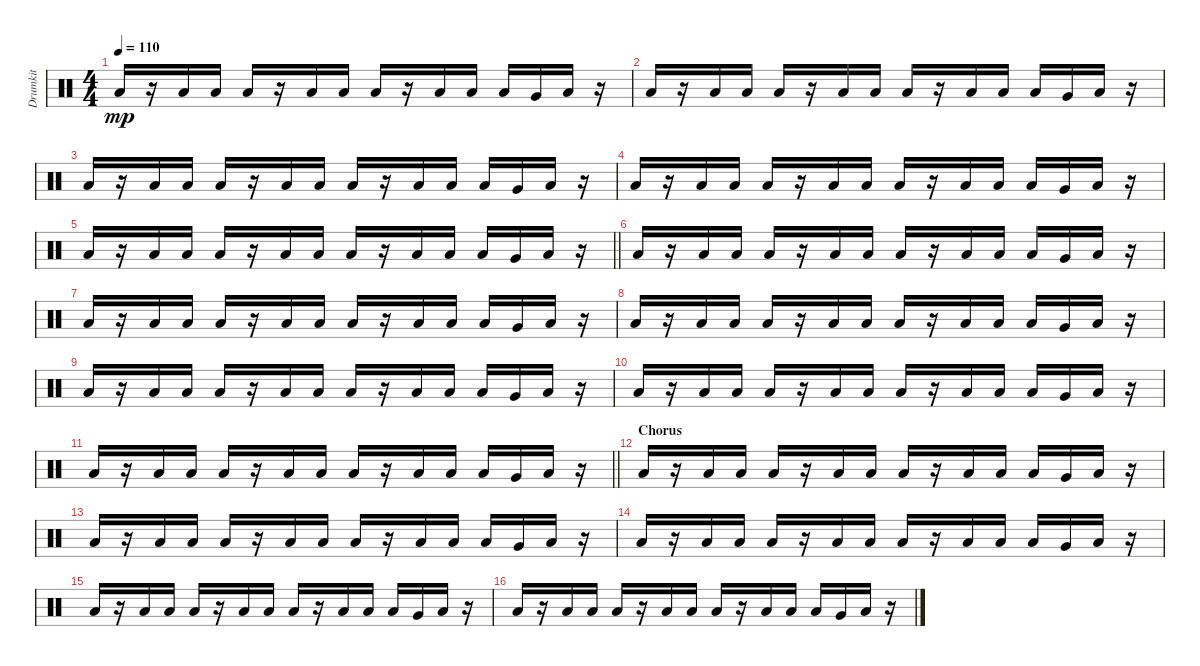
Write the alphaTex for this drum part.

\track ("Drumkit" "Drumkit") {instrument percussion}
\staff {score}
\articulation defaults
\ts (4 4)
\tempo 110
\clef neutral
\ks c "Low Tom (hit)".16{dy mp}
r.16 "Low Tom (hit)".16 "Low Tom (hit)".16 "Low Tom (hit)".16 r.16 "Low Tom (hit)".16 "Low Tom (hit)".16 "Low Tom (hit)".16 r.16 "Low Tom (hit)".16 "Low Tom (hit)".16 "Low Tom (hit)".16 "Very Low Tom (hit)".16 "Low Tom (hit)".16 r.16 |
"Low Tom (hit)".16 r.16 "Low Tom (hit)".16 "Low Tom (hit)".16 "Low Tom (hit)".16 r.16 "Low Tom (hit)".16 "Low Tom (hit)".16 "Low Tom (hit)".16 r.16 "Low Tom (hit)".16 "Low Tom (hit)".16 "Low Tom (hit)".16 "Very Low Tom (hit)".16 "Low Tom (hit)".16 r.16 |
"Low Tom (hit)".16 r.16 "Low Tom (hit)".16 "Low Tom (hit)".16 "Low Tom (hit)".16 r.16 "Low Tom (hit)".16 "Low Tom (hit)".16 "Low Tom (hit)".16 r.16 "Low Tom (hit)".16 "Low Tom (hit)".16 "Low Tom (hit)".16 "Very Low Tom (hit)".16 "Low Tom (hit)".16 r.16 |
"Low Tom (hit)".16 r.16 "Low Tom (hit)".16 "Low Tom (hit)".16 "Low Tom (hit)".16 r.16 "Low Tom (hit)".16 "Low Tom (hit)".16 "Low Tom (hit)".16 r.16 "Low Tom (hit)".16 "Low Tom (hit)".16 "Low Tom (hit)".16 "Very Low Tom (hit)".16 "Low Tom (hit)".16 r.16 |
\barLineRight lightlight "Low Tom (hit)".16
r.16 "Low Tom (hit)".16 "Low Tom (hit)".16 "Low Tom (hit)".16 r.16 "Low Tom (hit)".16 "Low Tom (hit)".16 "Low Tom (hit)".16 r.16 "Low Tom (hit)".16 "Low Tom (hit)".16 "Low Tom (hit)".16 "Very Low Tom (hit)".16 "Low Tom (hit)".16 r.16 |
"Low Tom (hit)".16 r.16 "Low Tom (hit)".16 "Low Tom (hit)".16 "Low Tom (hit)".16 r.16 "Low Tom (hit)".16 "Low Tom (hit)".16 "Low Tom (hit)".16 r.16 "Low Tom (hit)".16 "Low Tom (hit)".16 "Low Tom (hit)".16 "Very Low Tom (hit)".16 "Low Tom (hit)".16 r.16 |
"Low Tom (hit)".16 r.16 "Low Tom (hit)".16 "Low Tom (hit)".16 "Low Tom (hit)".16 r.16 "Low Tom (hit)".16 "Low Tom (hit)".16 "Low Tom (hit)".16 r.16 "Low Tom (hit)".16 "Low Tom (hit)".16 "Low Tom (hit)".16 "Very Low Tom (hit)".16 "Low Tom (hit)".16 r.16 |
"Low Tom (hit)".16 r.16 "Low Tom (hit)".16 "Low Tom (hit)".16 "Low Tom (hit)".16 r.16 "Low Tom (hit)".16 "Low Tom (hit)".16 "Low Tom (hit)".16 r.16 "Low Tom (hit)".16 "Low Tom (hit)".16 "Low Tom (hit)".16 "Very Low Tom (hit)".16 "Low Tom (hit)".16 r.16 |
"Low Tom (hit)".16 r.16 "Low Tom (hit)".16 "Low Tom (hit)".16 "Low Tom (hit)".16 r.16 "Low Tom (hit)".16 "Low Tom (hit)".16 "Low Tom (hit)".16 r.16 "Low Tom (hit)".16 "Low Tom (hit)".16 "Low Tom (hit)".16 "Very Low Tom (hit)".16 "Low Tom (hit)".16 r.16 |
"Low Tom (hit)".16 r.16 "Low Tom (hit)".16 "Low Tom (hit)".16 "Low Tom (hit)".16 r.16 "Low Tom (hit)".16 "Low Tom (hit)".16 "Low Tom (hit)".16 r.16 "Low Tom (hit)".16 "Low Tom (hit)".16 "Low Tom (hit)".16 "Very Low Tom (hit)".16 "Low Tom (hit)".16 r.16 |
\barLineRight lightlight "Low Tom (hit)".16
r.16 "Low Tom (hit)".16 "Low Tom (hit)".16 "Low Tom (hit)".16 r.16 "Low Tom (hit)".16 "Low Tom (hit)".16 "Low Tom (hit)".16 r.16 "Low Tom (hit)".16 "Low Tom (hit)".16 "Low Tom (hit)".16 "Very Low Tom (hit)".16 "Low Tom (hit)".16 r.16 |
\section ("" "Chorus")
"Low Tom (hit)".16 r.16 "Low Tom (hit)".16 "Low Tom (hit)".16 "Low Tom (hit)".16 r.16 "Low Tom (hit)".16 "Low Tom (hit)".16 "Low Tom (hit)".16 r.16 "Low Tom (hit)".16 "Low Tom (hit)".16 "Low Tom (hit)".16 "Very Low Tom (hit)".16 "Low Tom (hit)".16 r.16 |
"Low Tom (hit)".16 r.16 "Low Tom (hit)".16 "Low Tom (hit)".16 "Low Tom (hit)".16 r.16 "Low Tom (hit)".16 "Low Tom (hit)".16 "Low Tom (hit)".16 r.16 "Low Tom (hit)".16 "Low Tom (hit)".16 "Low Tom (hit)".16 "Very Low Tom (hit)".16 "Low Tom (hit)".16 r.16 |
"Low Tom (hit)".16 r.16 "Low Tom (hit)".16 "Low Tom (hit)".16 "Low Tom (hit)".16 r.16 "Low Tom (hit)".16 "Low Tom (hit)".16 "Low Tom (hit)".16 r.16 "Low Tom (hit)".16 "Low Tom (hit)".16 "Low Tom (hit)".16 "Very Low Tom (hit)".16 "Low Tom (hit)".16 r.16 |
"Low Tom (hit)".16 r.16 "Low Tom (hit)".16 "Low Tom (hit)".16 "Low Tom (hit)".16 r.16 "Low Tom (hit)".16 "Low Tom (hit)".16 "Low Tom (hit)".16 r.16 "Low Tom (hit)".16 "Low Tom (hit)".16 "Low Tom (hit)".16 "Very Low Tom (hit)".16 "Low Tom (hit)".16 r.16 |
"Low Tom (hit)".16 r.16 "Low Tom (hit)".16 "Low Tom (hit)".16 "Low Tom (hit)".16 r.16 "Low Tom (hit)".16 "Low Tom (hit)".16 "Low Tom (hit)".16 r.16 "Low Tom (hit)".16 "Low Tom (hit)".16 "Low Tom (hit)".16 "Very Low Tom (hit)".16 "Low Tom (hit)".16 r.16
